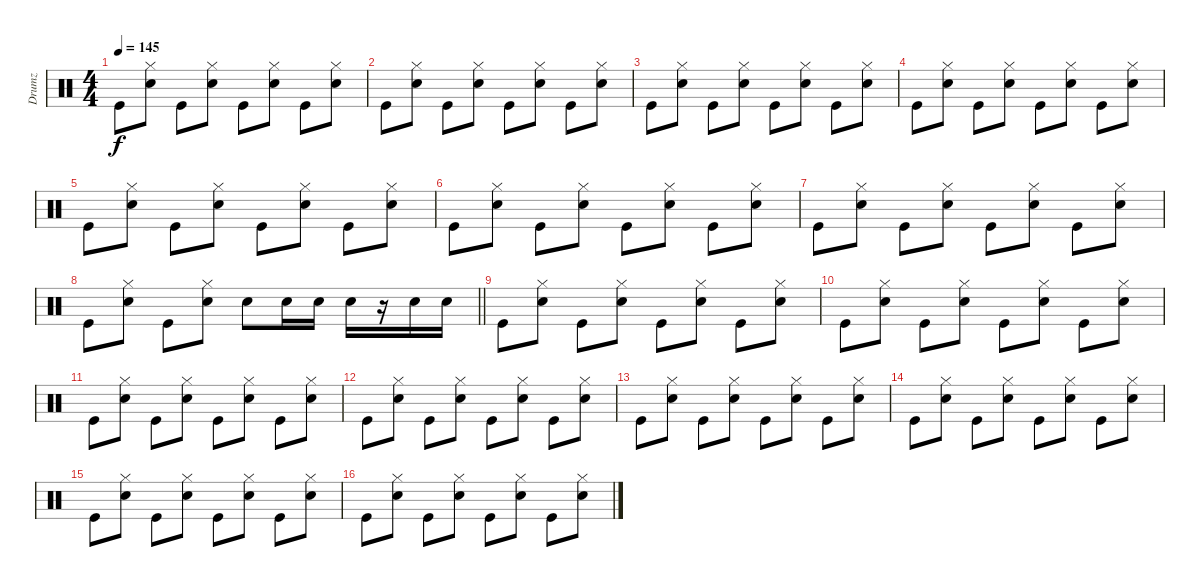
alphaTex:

\track ("Drumz" "Drumz") {instrument percussion}
\staff {score}
\articulation defaults
\ts (4 4)
\tempo 145
\clef neutral
\ks c "Kick (hit)".8{dy f}
("Hi-Hat (closed)" "Snare (hit) 2").8 "Kick (hit)".8 ("Hi-Hat (closed)" "Snare (hit) 2").8 "Kick (hit)".8 ("Hi-Hat (closed)" "Snare (hit) 2").8 "Kick (hit)".8 ("Hi-Hat (closed)" "Snare (hit) 2").8 |
"Kick (hit)".8 ("Hi-Hat (closed)" "Snare (hit) 2").8 "Kick (hit)".8 ("Hi-Hat (closed)" "Snare (hit) 2").8 "Kick (hit)".8 ("Hi-Hat (closed)" "Snare (hit) 2").8 "Kick (hit)".8 ("Hi-Hat (closed)" "Snare (hit) 2").8 |
"Kick (hit)".8 ("Hi-Hat (closed)" "Snare (hit) 2").8 "Kick (hit)".8 ("Hi-Hat (closed)" "Snare (hit) 2").8 "Kick (hit)".8 ("Hi-Hat (closed)" "Snare (hit) 2").8 "Kick (hit)".8 ("Hi-Hat (closed)" "Snare (hit) 2").8 |
"Kick (hit)".8 ("Hi-Hat (closed)" "Snare (hit) 2").8 "Kick (hit)".8 ("Hi-Hat (closed)" "Snare (hit) 2").8 "Kick (hit)".8 ("Hi-Hat (closed)" "Snare (hit) 2").8 "Kick (hit)".8 ("Hi-Hat (closed)" "Snare (hit) 2").8 |
"Kick (hit)".8 ("Hi-Hat (closed)" "Snare (hit) 2").8 "Kick (hit)".8 ("Hi-Hat (closed)" "Snare (hit) 2").8 "Kick (hit)".8 ("Hi-Hat (closed)" "Snare (hit) 2").8 "Kick (hit)".8 ("Hi-Hat (closed)" "Snare (hit) 2").8 |
"Kick (hit)".8 ("Hi-Hat (closed)" "Snare (hit) 2").8 "Kick (hit)".8 ("Hi-Hat (closed)" "Snare (hit) 2").8 "Kick (hit)".8 ("Hi-Hat (closed)" "Snare (hit) 2").8 "Kick (hit)".8 ("Hi-Hat (closed)" "Snare (hit) 2").8 |
"Kick (hit)".8 ("Hi-Hat (closed)" "Snare (hit) 2").8 "Kick (hit)".8 ("Hi-Hat (closed)" "Snare (hit) 2").8 "Kick (hit)".8 ("Hi-Hat (closed)" "Snare (hit) 2").8 "Kick (hit)".8 ("Hi-Hat (closed)" "Snare (hit) 2").8 |
\barLineRight lightlight "Kick (hit)".8
("Hi-Hat (closed)" "Snare (hit) 2").8 "Kick (hit)".8 ("Hi-Hat (closed)" "Snare (hit) 2").8 "Snare (hit) 2".8 "Snare (hit) 2".16 "Snare (hit) 2".16 "Snare (hit) 2".16 r.16 "Snare (hit) 2".16 "Snare (hit) 2".16 |
"Kick (hit)".8 ("Hi-Hat (closed)" "Snare (hit) 2").8 "Kick (hit)".8 ("Hi-Hat (closed)" "Snare (hit) 2").8 "Kick (hit)".8 ("Hi-Hat (closed)" "Snare (hit) 2").8 "Kick (hit)".8 ("Hi-Hat (closed)" "Snare (hit) 2").8 |
"Kick (hit)".8 ("Hi-Hat (closed)" "Snare (hit) 2").8 "Kick (hit)".8 ("Hi-Hat (closed)" "Snare (hit) 2").8 "Kick (hit)".8 ("Hi-Hat (closed)" "Snare (hit) 2").8 "Kick (hit)".8 ("Hi-Hat (closed)" "Snare (hit) 2").8 |
"Kick (hit)".8 ("Hi-Hat (closed)" "Snare (hit) 2").8 "Kick (hit)".8 ("Hi-Hat (closed)" "Snare (hit) 2").8 "Kick (hit)".8 ("Hi-Hat (closed)" "Snare (hit) 2").8 "Kick (hit)".8 ("Hi-Hat (closed)" "Snare (hit) 2").8 |
"Kick (hit)".8 ("Hi-Hat (closed)" "Snare (hit) 2").8 "Kick (hit)".8 ("Hi-Hat (closed)" "Snare (hit) 2").8 "Kick (hit)".8 ("Hi-Hat (closed)" "Snare (hit) 2").8 "Kick (hit)".8 ("Hi-Hat (closed)" "Snare (hit) 2").8 |
"Kick (hit)".8 ("Hi-Hat (closed)" "Snare (hit) 2").8 "Kick (hit)".8 ("Hi-Hat (closed)" "Snare (hit) 2").8 "Kick (hit)".8 ("Hi-Hat (closed)" "Snare (hit) 2").8 "Kick (hit)".8 ("Hi-Hat (closed)" "Snare (hit) 2").8 |
"Kick (hit)".8 ("Hi-Hat (closed)" "Snare (hit) 2").8 "Kick (hit)".8 ("Hi-Hat (closed)" "Snare (hit) 2").8 "Kick (hit)".8 ("Hi-Hat (closed)" "Snare (hit) 2").8 "Kick (hit)".8 ("Hi-Hat (closed)" "Snare (hit) 2").8 |
"Kick (hit)".8 ("Hi-Hat (closed)" "Snare (hit) 2").8 "Kick (hit)".8 ("Hi-Hat (closed)" "Snare (hit) 2").8 "Kick (hit)".8 ("Hi-Hat (closed)" "Snare (hit) 2").8 "Kick (hit)".8 ("Hi-Hat (closed)" "Snare (hit) 2").8 |
"Kick (hit)".8 ("Hi-Hat (closed)" "Snare (hit) 2").8 "Kick (hit)".8 ("Hi-Hat (closed)" "Snare (hit) 2").8 "Kick (hit)".8 ("Hi-Hat (closed)" "Snare (hit) 2").8 "Kick (hit)".8 ("Hi-Hat (closed)" "Snare (hit) 2").8
